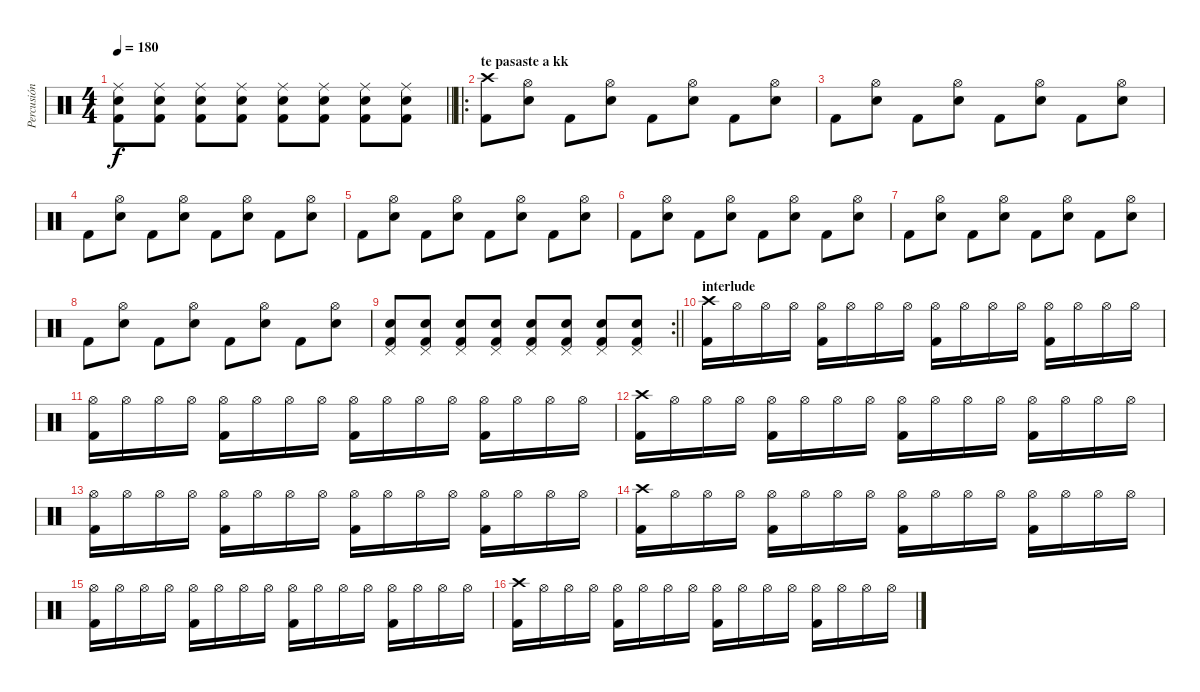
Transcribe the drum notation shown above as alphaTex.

\track ("Percusión" "Percusión") {instrument percussion}
\staff {score}
\articulation defaults
\ts (4 4)
\tempo 180
\clef neutral
\barLineRight lightlight
\ks c
("Ride (middle)" "Electric Snare (hit)" "Kick (hit) 2").8{dy f} ("Ride (middle)" "Electric Snare (hit)" "Kick (hit) 2").8 ("Ride (middle)" "Electric Snare (hit)" "Kick (hit) 2").8 ("Ride (middle)" "Electric Snare (hit)" "Kick (hit) 2").8 ("Ride (middle)" "Electric Snare (hit)" "Kick (hit) 2").8 ("Ride (middle)" "Electric Snare (hit)" "Kick (hit) 2").8 ("Ride (middle)" "Electric Snare (hit)" "Kick (hit) 2").8 ("Ride (middle)" "Electric Snare (hit)" "Kick (hit) 2").8 |
\ro
\section ("" "te pasaste a kk")
("Crash high (hit)" "Kick (hit) 2").8 ("Hi-Hat (open)" "Electric Snare (hit)").8 "Kick (hit) 2".8 ("Hi-Hat (open)" "Electric Snare (hit)").8 "Kick (hit) 2".8 ("Hi-Hat (open)" "Electric Snare (hit)").8 "Kick (hit) 2".8 ("Hi-Hat (open)" "Electric Snare (hit)").8 |
"Kick (hit) 2".8 ("Hi-Hat (open)" "Electric Snare (hit)").8 "Kick (hit) 2".8 ("Hi-Hat (open)" "Electric Snare (hit)").8 "Kick (hit) 2".8 ("Hi-Hat (open)" "Electric Snare (hit)").8 "Kick (hit) 2".8 ("Hi-Hat (open)" "Electric Snare (hit)").8 |
"Kick (hit) 2".8 ("Hi-Hat (open)" "Electric Snare (hit)").8 "Kick (hit) 2".8 ("Hi-Hat (open)" "Electric Snare (hit)").8 "Kick (hit) 2".8 ("Hi-Hat (open)" "Electric Snare (hit)").8 "Kick (hit) 2".8 ("Hi-Hat (open)" "Electric Snare (hit)").8 |
"Kick (hit) 2".8 ("Hi-Hat (open)" "Electric Snare (hit)").8 "Kick (hit) 2".8 ("Hi-Hat (open)" "Electric Snare (hit)").8 "Kick (hit) 2".8 ("Hi-Hat (open)" "Electric Snare (hit)").8 "Kick (hit) 2".8 ("Hi-Hat (open)" "Electric Snare (hit)").8 |
"Kick (hit) 2".8 ("Hi-Hat (open)" "Electric Snare (hit)").8 "Kick (hit) 2".8 ("Hi-Hat (open)" "Electric Snare (hit)").8 "Kick (hit) 2".8 ("Hi-Hat (open)" "Electric Snare (hit)").8 "Kick (hit) 2".8 ("Hi-Hat (open)" "Electric Snare (hit)").8 |
"Kick (hit) 2".8 ("Hi-Hat (open)" "Electric Snare (hit)").8 "Kick (hit) 2".8 ("Hi-Hat (open)" "Electric Snare (hit)").8 "Kick (hit) 2".8 ("Hi-Hat (open)" "Electric Snare (hit)").8 "Kick (hit) 2".8 ("Hi-Hat (open)" "Electric Snare (hit)").8 |
"Kick (hit) 2".8 ("Hi-Hat (open)" "Electric Snare (hit)").8 "Kick (hit) 2".8 ("Hi-Hat (open)" "Electric Snare (hit)").8 "Kick (hit) 2".8 ("Hi-Hat (open)" "Electric Snare (hit)").8 "Kick (hit) 2".8 ("Hi-Hat (open)" "Electric Snare (hit)").8 |
\rc 2
\barLineRight lightlight
("Pedal Hi-Hat (hit)" "Electric Snare (hit)" "Kick (hit) 2").8 ("Pedal Hi-Hat (hit)" "Electric Snare (hit)" "Kick (hit) 2").8 ("Pedal Hi-Hat (hit)" "Electric Snare (hit)" "Kick (hit) 2").8 ("Pedal Hi-Hat (hit)" "Electric Snare (hit)" "Kick (hit) 2").8 ("Pedal Hi-Hat (hit)" "Electric Snare (hit)" "Kick (hit) 2").8 ("Pedal Hi-Hat (hit)" "Electric Snare (hit)" "Kick (hit) 2").8 ("Pedal Hi-Hat (hit)" "Electric Snare (hit)" "Kick (hit) 2").8 ("Pedal Hi-Hat (hit)" "Electric Snare (hit)" "Kick (hit) 2").8 |
\section ("" "interlude")
("Crash high (hit)" "Kick (hit) 2").16 "Hi-Hat (open)".16 "Hi-Hat (open)".16 "Hi-Hat (open)".16 ("Hi-Hat (open)" "Kick (hit) 2").16 "Hi-Hat (open)".16 "Hi-Hat (open)".16 "Hi-Hat (open)".16 ("Hi-Hat (open)" "Kick (hit) 2").16 "Hi-Hat (open)".16 "Hi-Hat (open)".16 "Hi-Hat (open)".16 ("Hi-Hat (open)" "Kick (hit) 2").16 "Hi-Hat (open)".16 "Hi-Hat (open)".16 "Hi-Hat (open)".16 |
("Hi-Hat (open)" "Kick (hit) 2").16 "Hi-Hat (open)".16 "Hi-Hat (open)".16 "Hi-Hat (open)".16 ("Hi-Hat (open)" "Kick (hit) 2").16 "Hi-Hat (open)".16 "Hi-Hat (open)".16 "Hi-Hat (open)".16 ("Hi-Hat (open)" "Kick (hit) 2").16 "Hi-Hat (open)".16 "Hi-Hat (open)".16 "Hi-Hat (open)".16 ("Hi-Hat (open)" "Kick (hit) 2").16 "Hi-Hat (open)".16 "Hi-Hat (open)".16 "Hi-Hat (open)".16 |
("Crash high (hit)" "Kick (hit) 2").16 "Hi-Hat (open)".16 "Hi-Hat (open)".16 "Hi-Hat (open)".16 ("Hi-Hat (open)" "Kick (hit) 2").16 "Hi-Hat (open)".16 "Hi-Hat (open)".16 "Hi-Hat (open)".16 ("Hi-Hat (open)" "Kick (hit) 2").16 "Hi-Hat (open)".16 "Hi-Hat (open)".16 "Hi-Hat (open)".16 ("Hi-Hat (open)" "Kick (hit) 2").16 "Hi-Hat (open)".16 "Hi-Hat (open)".16 "Hi-Hat (open)".16 |
("Hi-Hat (open)" "Kick (hit) 2").16 "Hi-Hat (open)".16 "Hi-Hat (open)".16 "Hi-Hat (open)".16 ("Hi-Hat (open)" "Kick (hit) 2").16 "Hi-Hat (open)".16 "Hi-Hat (open)".16 "Hi-Hat (open)".16 ("Hi-Hat (open)" "Kick (hit) 2").16 "Hi-Hat (open)".16 "Hi-Hat (open)".16 "Hi-Hat (open)".16 ("Hi-Hat (open)" "Kick (hit) 2").16 "Hi-Hat (open)".16 "Hi-Hat (open)".16 "Hi-Hat (open)".16 |
("Crash high (hit)" "Kick (hit) 2").16 "Hi-Hat (open)".16 "Hi-Hat (open)".16 "Hi-Hat (open)".16 ("Hi-Hat (open)" "Kick (hit) 2").16 "Hi-Hat (open)".16 "Hi-Hat (open)".16 "Hi-Hat (open)".16 ("Hi-Hat (open)" "Kick (hit) 2").16 "Hi-Hat (open)".16 "Hi-Hat (open)".16 "Hi-Hat (open)".16 ("Hi-Hat (open)" "Kick (hit) 2").16 "Hi-Hat (open)".16 "Hi-Hat (open)".16 "Hi-Hat (open)".16 |
("Hi-Hat (open)" "Kick (hit) 2").16 "Hi-Hat (open)".16 "Hi-Hat (open)".16 "Hi-Hat (open)".16 ("Hi-Hat (open)" "Kick (hit) 2").16 "Hi-Hat (open)".16 "Hi-Hat (open)".16 "Hi-Hat (open)".16 ("Hi-Hat (open)" "Kick (hit) 2").16 "Hi-Hat (open)".16 "Hi-Hat (open)".16 "Hi-Hat (open)".16 ("Hi-Hat (open)" "Kick (hit) 2").16 "Hi-Hat (open)".16 "Hi-Hat (open)".16 "Hi-Hat (open)".16 |
("Crash high (hit)" "Kick (hit) 2").16 "Hi-Hat (open)".16 "Hi-Hat (open)".16 "Hi-Hat (open)".16 ("Hi-Hat (open)" "Kick (hit) 2").16 "Hi-Hat (open)".16 "Hi-Hat (open)".16 "Hi-Hat (open)".16 ("Hi-Hat (open)" "Kick (hit) 2").16 "Hi-Hat (open)".16 "Hi-Hat (open)".16 "Hi-Hat (open)".16 ("Hi-Hat (open)" "Kick (hit) 2").16 "Hi-Hat (open)".16 "Hi-Hat (open)".16 "Hi-Hat (open)".16
